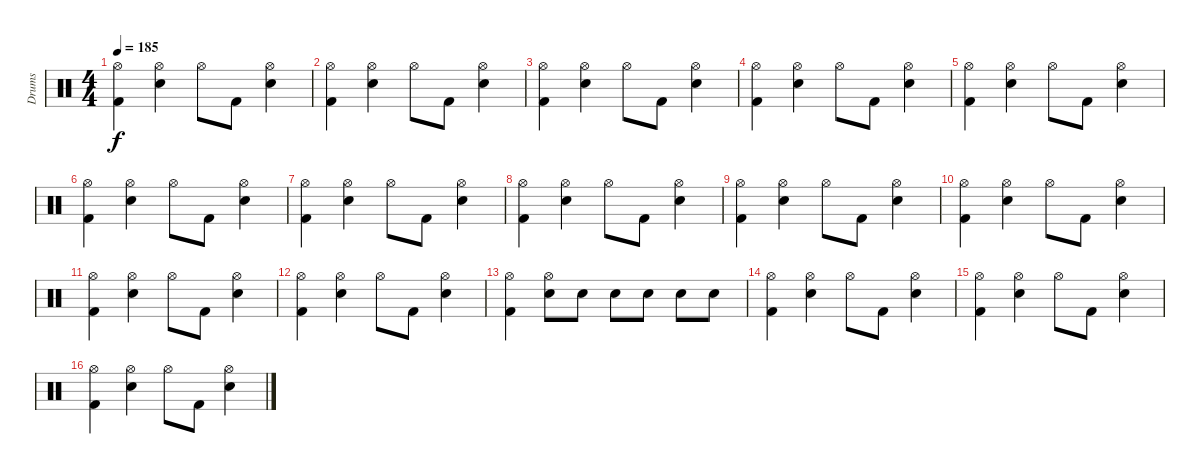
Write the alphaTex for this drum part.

\track ("Drums" "Drums") {instrument percussion}
\staff {score}
\articulation defaults
\ts (4 4)
\tempo 185
\clef neutral
\ks c
("Hi-Hat (open)" "Kick (hit) 2").4{dy f} ("Hi-Hat (open)" "Electric Snare (hit)").4 "Hi-Hat (open)".8 "Kick (hit) 2".8 ("Hi-Hat (open)" "Electric Snare (hit)").4 |
("Hi-Hat (open)" "Kick (hit) 2").4 ("Hi-Hat (open)" "Electric Snare (hit)").4 "Hi-Hat (open)".8 "Kick (hit) 2".8 ("Hi-Hat (open)" "Electric Snare (hit)").4 |
("Hi-Hat (open)" "Kick (hit) 2").4 ("Hi-Hat (open)" "Electric Snare (hit)").4 "Hi-Hat (open)".8 "Kick (hit) 2".8 ("Hi-Hat (open)" "Electric Snare (hit)").4 |
("Hi-Hat (open)" "Kick (hit) 2").4 ("Hi-Hat (open)" "Electric Snare (hit)").4 "Hi-Hat (open)".8 "Kick (hit) 2".8 ("Hi-Hat (open)" "Electric Snare (hit)").4 |
("Hi-Hat (open)" "Kick (hit) 2").4 ("Hi-Hat (open)" "Electric Snare (hit)").4 "Hi-Hat (open)".8 "Kick (hit) 2".8 ("Hi-Hat (open)" "Electric Snare (hit)").4 |
("Hi-Hat (open)" "Kick (hit) 2").4 ("Hi-Hat (open)" "Electric Snare (hit)").4 "Hi-Hat (open)".8 "Kick (hit) 2".8 ("Hi-Hat (open)" "Electric Snare (hit)").4 |
("Hi-Hat (open)" "Kick (hit) 2").4 ("Hi-Hat (open)" "Electric Snare (hit)").4 "Hi-Hat (open)".8 "Kick (hit) 2".8 ("Hi-Hat (open)" "Electric Snare (hit)").4 |
("Hi-Hat (open)" "Kick (hit) 2").4 ("Hi-Hat (open)" "Electric Snare (hit)").4 "Hi-Hat (open)".8 "Kick (hit) 2".8 ("Hi-Hat (open)" "Electric Snare (hit)").4 |
("Hi-Hat (open)" "Kick (hit) 2").4 ("Hi-Hat (open)" "Electric Snare (hit)").4 "Hi-Hat (open)".8 "Kick (hit) 2".8 ("Hi-Hat (open)" "Electric Snare (hit)").4 |
("Hi-Hat (open)" "Kick (hit) 2").4 ("Hi-Hat (open)" "Electric Snare (hit)").4 "Hi-Hat (open)".8 "Kick (hit) 2".8 ("Hi-Hat (open)" "Electric Snare (hit)").4 |
("Hi-Hat (open)" "Kick (hit) 2").4 ("Hi-Hat (open)" "Electric Snare (hit)").4 "Hi-Hat (open)".8 "Kick (hit) 2".8 ("Hi-Hat (open)" "Electric Snare (hit)").4 |
("Hi-Hat (open)" "Kick (hit) 2").4 ("Hi-Hat (open)" "Electric Snare (hit)").4 "Hi-Hat (open)".8 "Kick (hit) 2".8 ("Hi-Hat (open)" "Electric Snare (hit)").4 |
("Hi-Hat (open)" "Kick (hit) 2").4 ("Hi-Hat (open)" "Electric Snare (hit)").8 "Electric Snare (hit)".8 "Electric Snare (hit)".8 "Electric Snare (hit)".8 "Electric Snare (hit)".8 "Electric Snare (hit)".8 |
("Hi-Hat (open)" "Kick (hit) 2").4 ("Hi-Hat (open)" "Electric Snare (hit)").4 "Hi-Hat (open)".8 "Kick (hit) 2".8 ("Hi-Hat (open)" "Electric Snare (hit)").4 |
("Hi-Hat (open)" "Kick (hit) 2").4 ("Hi-Hat (open)" "Electric Snare (hit)").4 "Hi-Hat (open)".8 "Kick (hit) 2".8 ("Hi-Hat (open)" "Electric Snare (hit)").4 |
("Hi-Hat (open)" "Kick (hit) 2").4 ("Hi-Hat (open)" "Electric Snare (hit)").4 "Hi-Hat (open)".8 "Kick (hit) 2".8 ("Hi-Hat (open)" "Electric Snare (hit)").4
